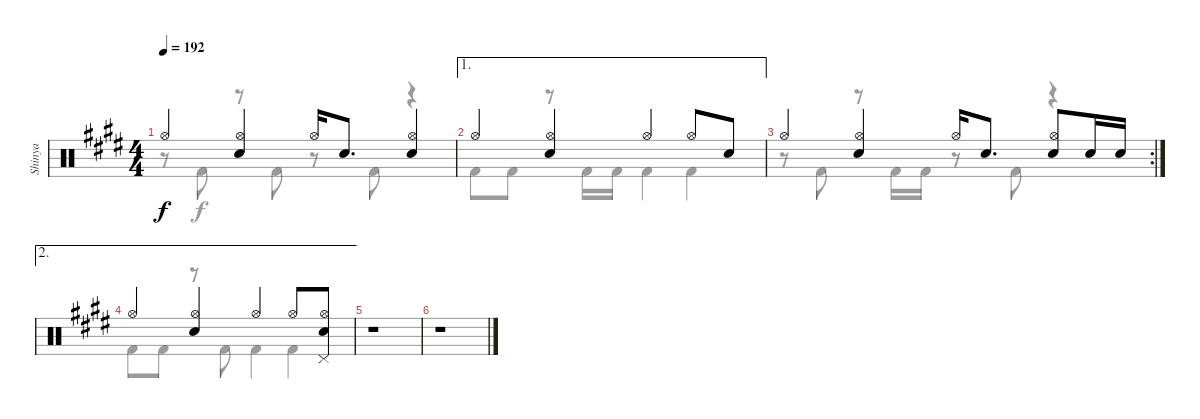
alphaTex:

\track ("Shinya" "Shinya") {instrument percussion}
\staff {score}
\articulation defaults
\voice
\ts (4 4)
\tempo 192
\clef neutral
\ks c#minor "Hi-Hat (open)".4{dy f}
("Hi-Hat (open)" "Snare (hit) 2").4 "Hi-Hat (open)".16 "Snare (hit) 2".8{d} ("Hi-Hat (open)" "Snare (hit) 2").4 |
\ae 1 "Hi-Hat (open)".4
("Hi-Hat (open)" "Snare (hit) 2").4 "Hi-Hat (open)".4 "Hi-Hat (open)".8 "Snare (hit) 2".8 |
\rc 2 "Hi-Hat (open)".4
("Hi-Hat (open)" "Snare (hit) 2").4 "Hi-Hat (open)".16 "Snare (hit) 2".8{d} ("Hi-Hat (open)" "Snare (hit) 2").8 "Snare (hit) 2".16 "Snare (hit) 2".16 |
\ae 2 "Hi-Hat (open)".4
("Hi-Hat (open)" "Snare (hit) 2").4 "Hi-Hat (open)".4 "Hi-Hat (open)".8 ("Hi-Hat (open)" "Pedal Hi-Hat (hit)" "Snare (hit) 2").8 |
r.1 |
r.1
\voice
\clef neutral
\ottava regular
\simile none
\ks c#minor
r.8{dy f} "Kick (hit) 2".8 r.8 "Kick (hit) 2".8 r.8 "Kick (hit) 2".8 r.4 |
"Kick (hit) 2".8 "Kick (hit) 2".8 r.8 "Kick (hit) 2".16 "Kick (hit) 2".16 "Kick (hit) 2".4 "Kick (hit) 2".4 |
r.8 "Kick (hit) 2".8 r.8 "Kick (hit) 2".16 "Kick (hit) 2".16 r.8 "Kick (hit) 2".8 r.4 |
"Kick (hit) 2".8 "Kick (hit) 2".8 r.8 "Kick (hit) 2".8 "Kick (hit) 2".4 "Kick (hit) 2".4 |
r.1 |
r.1
